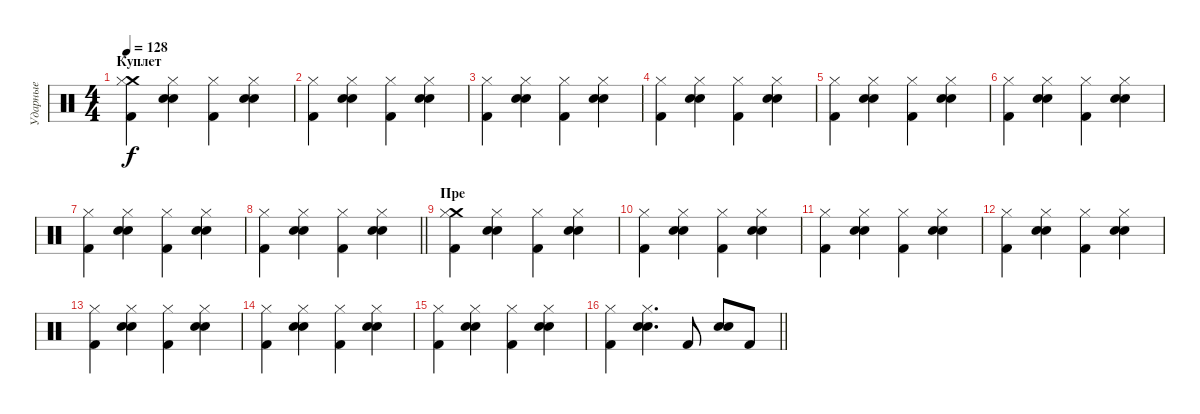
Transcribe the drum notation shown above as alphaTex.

\track ("Ударные" "Ударные") {instrument percussion}
\staff {score}
\articulation defaults
\ts (4 4)
\section ("" "Куплет")
\tempo 128
\clef neutral
\ks c
("Crash medium (hit)" "Hi-Hat (closed)" "Kick (hit) 2").4{dy f} ("Electric Snare (hit)" "Snare (hit) 2" "Hi-Hat (closed)").4 ("Hi-Hat (closed)" "Kick (hit) 2").4 ("Electric Snare (hit)" "Snare (hit) 2" "Hi-Hat (closed)").4 |
("Hi-Hat (closed)" "Kick (hit) 2").4 ("Electric Snare (hit)" "Snare (hit) 2" "Hi-Hat (closed)").4 ("Hi-Hat (closed)" "Kick (hit) 2").4 ("Electric Snare (hit)" "Snare (hit) 2" "Hi-Hat (closed)").4 |
("Hi-Hat (closed)" "Kick (hit) 2").4 ("Electric Snare (hit)" "Snare (hit) 2" "Hi-Hat (closed)").4 ("Hi-Hat (closed)" "Kick (hit) 2").4 ("Electric Snare (hit)" "Snare (hit) 2" "Hi-Hat (closed)").4 |
("Hi-Hat (closed)" "Kick (hit) 2").4 ("Electric Snare (hit)" "Snare (hit) 2" "Hi-Hat (closed)").4 ("Hi-Hat (closed)" "Kick (hit) 2").4 ("Electric Snare (hit)" "Snare (hit) 2" "Hi-Hat (closed)").4 |
("Hi-Hat (closed)" "Kick (hit) 2").4 ("Electric Snare (hit)" "Snare (hit) 2" "Hi-Hat (closed)").4 ("Hi-Hat (closed)" "Kick (hit) 2").4 ("Electric Snare (hit)" "Snare (hit) 2" "Hi-Hat (closed)").4 |
("Hi-Hat (closed)" "Kick (hit) 2").4 ("Electric Snare (hit)" "Snare (hit) 2" "Hi-Hat (closed)").4 ("Hi-Hat (closed)" "Kick (hit) 2").4 ("Electric Snare (hit)" "Snare (hit) 2" "Hi-Hat (closed)").4 |
("Hi-Hat (closed)" "Kick (hit) 2").4 ("Electric Snare (hit)" "Snare (hit) 2" "Hi-Hat (closed)").4 ("Hi-Hat (closed)" "Kick (hit) 2").4 ("Electric Snare (hit)" "Snare (hit) 2" "Hi-Hat (closed)").4 |
\barLineRight lightlight
("Hi-Hat (closed)" "Kick (hit) 2").4 ("Electric Snare (hit)" "Snare (hit) 2" "Hi-Hat (closed)").4 ("Hi-Hat (closed)" "Kick (hit) 2").4 ("Electric Snare (hit)" "Snare (hit) 2" "Hi-Hat (closed)").4 |
\section ("" "Пре")
("Crash medium (hit)" "Hi-Hat (closed)" "Kick (hit) 2").4 ("Electric Snare (hit)" "Snare (hit) 2" "Hi-Hat (closed)").4 ("Hi-Hat (closed)" "Kick (hit) 2").4 ("Electric Snare (hit)" "Snare (hit) 2" "Hi-Hat (closed)").4 |
("Hi-Hat (closed)" "Kick (hit) 2").4 ("Electric Snare (hit)" "Snare (hit) 2" "Hi-Hat (closed)").4 ("Hi-Hat (closed)" "Kick (hit) 2").4 ("Electric Snare (hit)" "Snare (hit) 2" "Hi-Hat (closed)").4 |
("Hi-Hat (closed)" "Kick (hit) 2").4 ("Electric Snare (hit)" "Snare (hit) 2" "Hi-Hat (closed)").4 ("Hi-Hat (closed)" "Kick (hit) 2").4 ("Electric Snare (hit)" "Snare (hit) 2" "Hi-Hat (closed)").4 |
("Hi-Hat (closed)" "Kick (hit) 2").4 ("Electric Snare (hit)" "Snare (hit) 2" "Hi-Hat (closed)").4 ("Hi-Hat (closed)" "Kick (hit) 2").4 ("Electric Snare (hit)" "Snare (hit) 2" "Hi-Hat (closed)").4 |
("Hi-Hat (closed)" "Kick (hit) 2").4 ("Electric Snare (hit)" "Snare (hit) 2" "Hi-Hat (closed)").4 ("Hi-Hat (closed)" "Kick (hit) 2").4 ("Electric Snare (hit)" "Snare (hit) 2" "Hi-Hat (closed)").4 |
("Hi-Hat (closed)" "Kick (hit) 2").4 ("Electric Snare (hit)" "Snare (hit) 2" "Hi-Hat (closed)").4 ("Hi-Hat (closed)" "Kick (hit) 2").4 ("Electric Snare (hit)" "Snare (hit) 2" "Hi-Hat (closed)").4 |
("Hi-Hat (closed)" "Kick (hit) 2").4 ("Electric Snare (hit)" "Snare (hit) 2" "Hi-Hat (closed)").4 ("Hi-Hat (closed)" "Kick (hit) 2").4 ("Electric Snare (hit)" "Snare (hit) 2" "Hi-Hat (closed)").4 |
\barLineRight lightlight
("Hi-Hat (closed)" "Kick (hit) 2").4 ("Electric Snare (hit)" "Snare (hit) 2" "Hi-Hat (closed)").4{d} "Kick (hit) 2".8 ("Electric Snare (hit)" "Snare (hit) 2").8 "Kick (hit) 2".8
